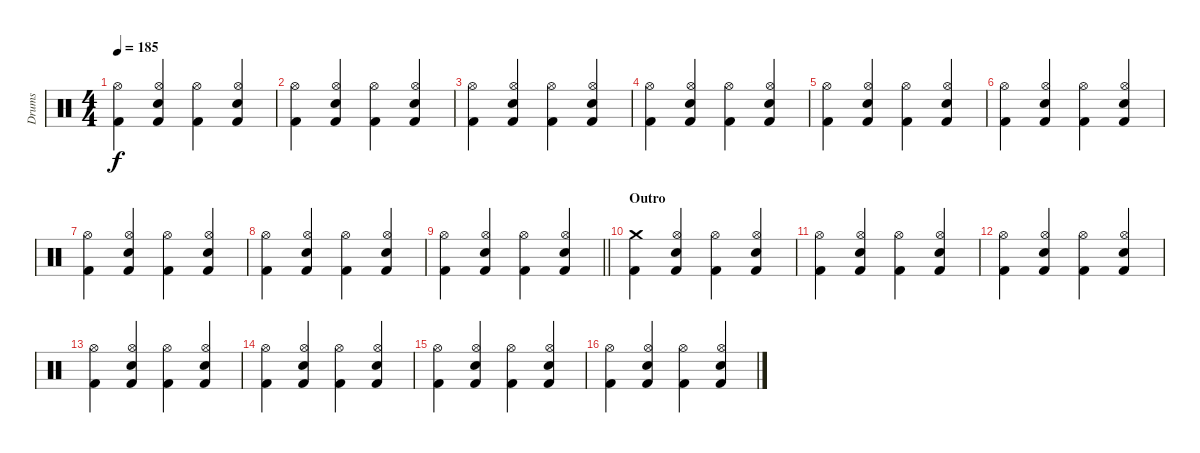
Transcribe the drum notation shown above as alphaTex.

\track ("Drums" "Drums") {instrument percussion bank 1}
\staff {score}
\articulation defaults
\ts (4 4)
\tempo 185
\clef neutral
\ks c
("Kick (hit) 2" "Hi-Hat (open)").4{dy f} ("Kick (hit) 2" "Snare (hit) 2" "Hi-Hat (open)").4 ("Kick (hit) 2" "Hi-Hat (open)").4 ("Kick (hit) 2" "Snare (hit) 2" "Hi-Hat (open)").4 |
("Kick (hit) 2" "Hi-Hat (open)").4 ("Kick (hit) 2" "Snare (hit) 2" "Hi-Hat (open)").4 ("Kick (hit) 2" "Hi-Hat (open)").4 ("Kick (hit) 2" "Snare (hit) 2" "Hi-Hat (open)").4 |
("Kick (hit) 2" "Hi-Hat (open)").4 ("Kick (hit) 2" "Snare (hit) 2" "Hi-Hat (open)").4 ("Kick (hit) 2" "Hi-Hat (open)").4 ("Kick (hit) 2" "Snare (hit) 2" "Hi-Hat (open)").4 |
("Kick (hit) 2" "Hi-Hat (open)").4 ("Kick (hit) 2" "Snare (hit) 2" "Hi-Hat (open)").4 ("Kick (hit) 2" "Hi-Hat (open)").4 ("Kick (hit) 2" "Snare (hit) 2" "Hi-Hat (open)").4 |
("Kick (hit) 2" "Hi-Hat (open)").4 ("Kick (hit) 2" "Snare (hit) 2" "Hi-Hat (open)").4 ("Kick (hit) 2" "Hi-Hat (open)").4 ("Kick (hit) 2" "Snare (hit) 2" "Hi-Hat (open)").4 |
("Kick (hit) 2" "Hi-Hat (open)").4 ("Kick (hit) 2" "Snare (hit) 2" "Hi-Hat (open)").4 ("Kick (hit) 2" "Hi-Hat (open)").4 ("Kick (hit) 2" "Snare (hit) 2" "Hi-Hat (open)").4 |
("Kick (hit) 2" "Hi-Hat (open)").4 ("Kick (hit) 2" "Snare (hit) 2" "Hi-Hat (open)").4 ("Kick (hit) 2" "Hi-Hat (open)").4 ("Kick (hit) 2" "Snare (hit) 2" "Hi-Hat (open)").4 |
("Kick (hit) 2" "Hi-Hat (open)").4 ("Kick (hit) 2" "Snare (hit) 2" "Hi-Hat (open)").4 ("Kick (hit) 2" "Hi-Hat (open)").4 ("Kick (hit) 2" "Snare (hit) 2" "Hi-Hat (open)").4 |
\barLineRight lightlight
("Kick (hit) 2" "Hi-Hat (open)").4 ("Kick (hit) 2" "Snare (hit) 2" "Hi-Hat (open)").4 ("Kick (hit) 2" "Hi-Hat (open)").4 ("Kick (hit) 2" "Snare (hit) 2" "Hi-Hat (open)").4 |
\section ("" "Outro")
("Kick (hit) 2" "Crash medium (hit)").4 ("Kick (hit) 2" "Snare (hit) 2" "Hi-Hat (open)").4 ("Kick (hit) 2" "Hi-Hat (open)").4 ("Kick (hit) 2" "Snare (hit) 2" "Hi-Hat (open)").4 |
("Kick (hit) 2" "Hi-Hat (open)").4 ("Kick (hit) 2" "Snare (hit) 2" "Hi-Hat (open)").4 ("Kick (hit) 2" "Hi-Hat (open)").4 ("Kick (hit) 2" "Snare (hit) 2" "Hi-Hat (open)").4 |
("Kick (hit) 2" "Hi-Hat (open)").4 ("Kick (hit) 2" "Snare (hit) 2" "Hi-Hat (open)").4 ("Kick (hit) 2" "Hi-Hat (open)").4 ("Kick (hit) 2" "Snare (hit) 2" "Hi-Hat (open)").4 |
("Kick (hit) 2" "Hi-Hat (open)").4 ("Kick (hit) 2" "Snare (hit) 2" "Hi-Hat (open)").4 ("Kick (hit) 2" "Hi-Hat (open)").4 ("Kick (hit) 2" "Snare (hit) 2" "Hi-Hat (open)").4 |
("Kick (hit) 2" "Hi-Hat (open)").4 ("Kick (hit) 2" "Snare (hit) 2" "Hi-Hat (open)").4 ("Kick (hit) 2" "Hi-Hat (open)").4 ("Kick (hit) 2" "Snare (hit) 2" "Hi-Hat (open)").4 |
("Kick (hit) 2" "Hi-Hat (open)").4 ("Kick (hit) 2" "Snare (hit) 2" "Hi-Hat (open)").4 ("Kick (hit) 2" "Hi-Hat (open)").4 ("Kick (hit) 2" "Snare (hit) 2" "Hi-Hat (open)").4 |
("Kick (hit) 2" "Hi-Hat (open)").4 ("Kick (hit) 2" "Snare (hit) 2" "Hi-Hat (open)").4 ("Kick (hit) 2" "Hi-Hat (open)").4 ("Kick (hit) 2" "Snare (hit) 2" "Hi-Hat (open)").4
